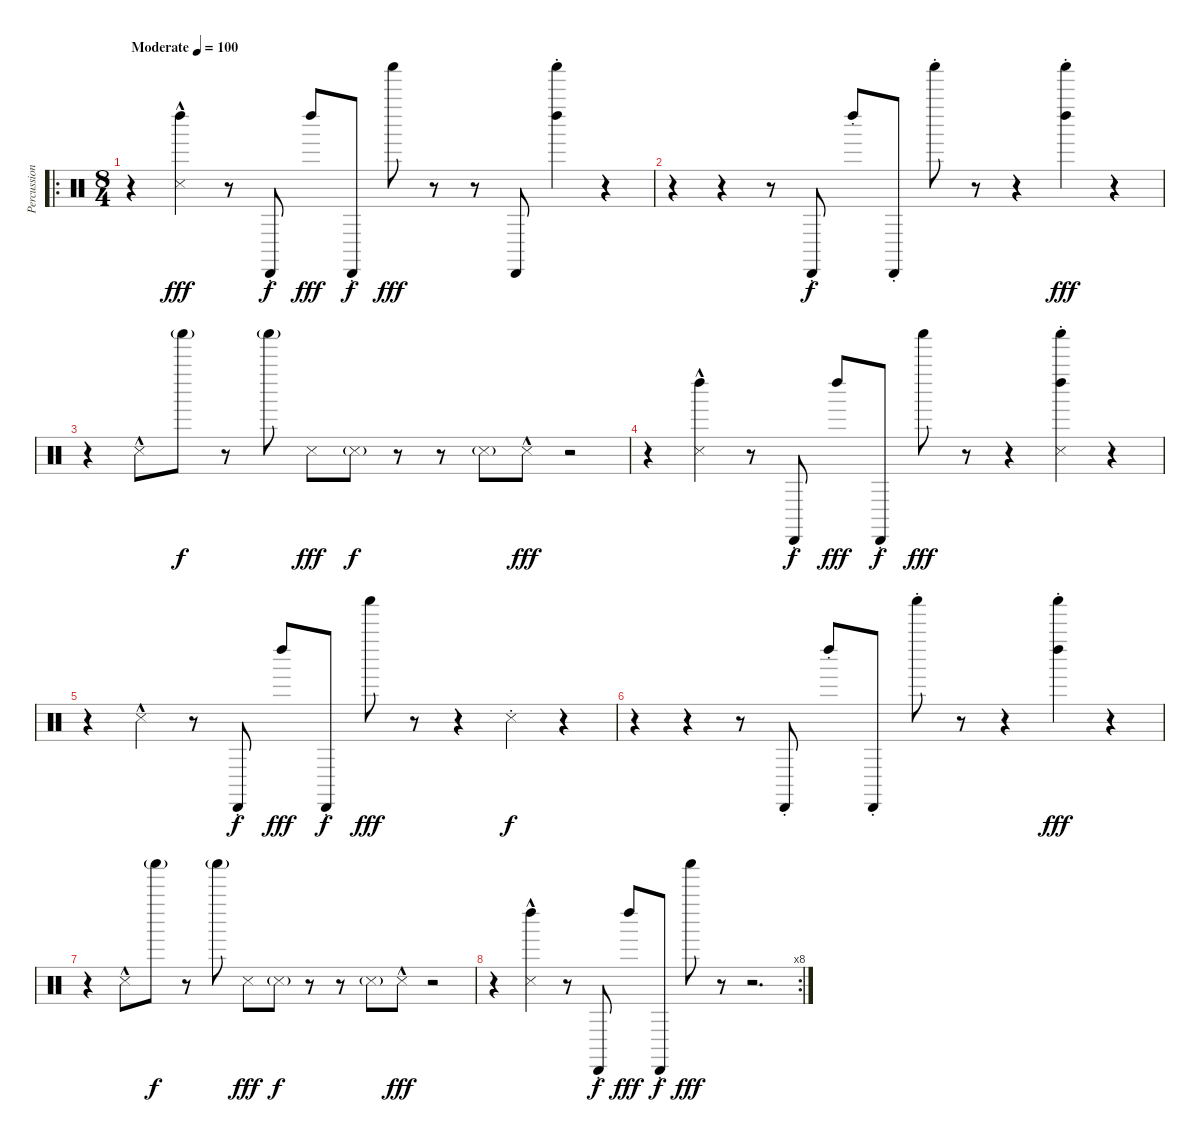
\track ("Percussion" "Percussion") {instrument percussion}
\staff {score}
\articulation defaults
\ro
\ts (8 4)
\tempo (100 "Moderate")
\clef neutral
\ks c
r.4{dy fff} ("Left Maraca (hit)" "Snare (side stick) 3"{hac}).4 r.8 "Cabasa (hit)"{st}.8{dy f} "Left Maraca (hit)".8{dy fff} "Cabasa (hit)"{st}.8{dy f} "Shaker (hit)".8{dy fff} r.8 r.8 "Cabasa (hit)".8 ("Shaker (hit)"{st} "Left Maraca (hit)").4 r.4 |
r.4 r.4 r.8 "Cabasa (hit)"{st}.8{dy f} "Left Maraca (hit)"{st}.8 "Cabasa (hit)"{st}.8 "Shaker (hit)"{st}.8 r.8 r.4 ("Shaker (hit)"{st} "Left Maraca (hit)").4{dy fff} r.4 |
r.4 "Snare (side stick) 3"{hac}.8 "Shaker (hit)"{g}.8{dy f} r.8 "Shaker (hit)"{g}.8 "Snare (side stick) 3".8{dy fff} "Snare (side stick) 3"{g}.8{dy f} r.8 r.8 "Snare (side stick) 3"{g}.8 "Snare (side stick) 3"{hac}.8{dy fff} r.2 |
r.4 ("Left Maraca (hit)" "Snare (side stick) 3"{hac}).4 r.8 "Cabasa (hit)"{st}.8{dy f} "Left Maraca (hit)".8{dy fff} "Cabasa (hit)"{st}.8{dy f} "Shaker (hit)".8{dy fff} r.8 r.4 ("Snare (side stick) 3"{st} "Shaker (hit)" "Left Maraca (hit)").4 r.4 |
r.4 "Snare (side stick) 3"{hac}.4 r.8 "Cabasa (hit)"{st}.8{dy f} "Left Maraca (hit)".8{dy fff} "Cabasa (hit)"{st}.8{dy f} "Shaker (hit)".8{dy fff} r.8 r.4 "Snare (side stick) 3"{st}.4{dy f} r.4 |
r.4 r.4 r.8 "Cabasa (hit)"{st}.8 "Left Maraca (hit)"{st}.8 "Cabasa (hit)"{st}.8 "Shaker (hit)"{st}.8 r.8 r.4 ("Shaker (hit)"{st} "Left Maraca (hit)").4{dy fff} r.4 |
r.4 "Snare (side stick) 3"{hac}.8 "Shaker (hit)"{g}.8{dy f} r.8 "Shaker (hit)"{g}.8 "Snare (side stick) 3".8{dy fff} "Snare (side stick) 3"{g}.8{dy f} r.8 r.8 "Snare (side stick) 3"{g}.8 "Snare (side stick) 3"{hac}.8{dy fff} r.2 |
\rc 8
r.4 ("Left Maraca (hit)" "Snare (side stick) 3"{hac}).4 r.8 "Cabasa (hit)"{st}.8{dy f} "Left Maraca (hit)".8{dy fff} "Cabasa (hit)"{st}.8{dy f} "Shaker (hit)".8{dy fff} r.8 r.2{d}
